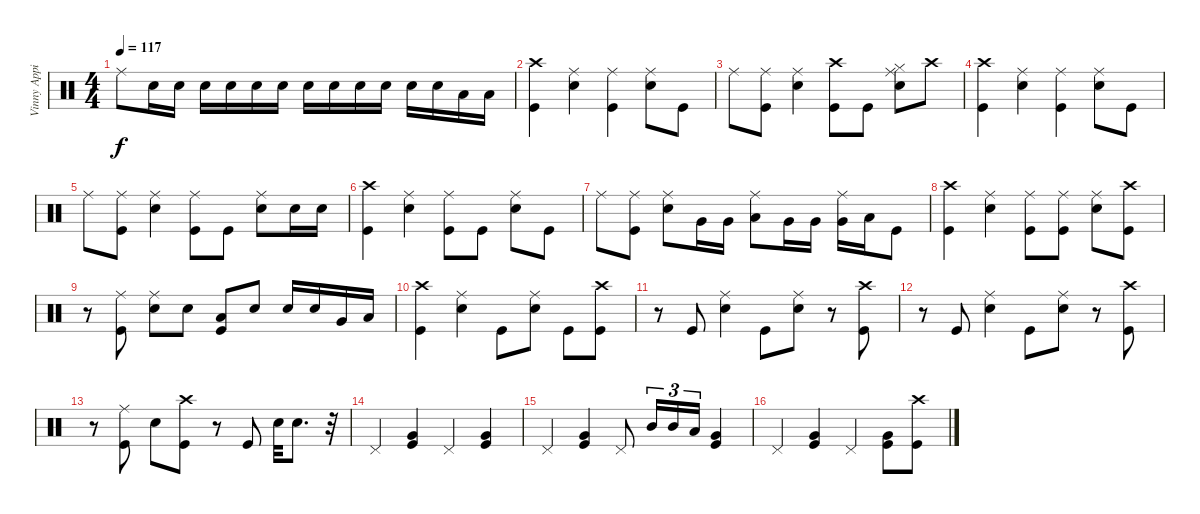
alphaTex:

\track ("Vinny Appice" "Vinny Appi") {instrument percussion}
\staff {score}
\articulation defaults
\ts (4 4)
\tempo 117
\clef neutral
\ks c "Ride (middle)".8{dy f} "Snare (hit) 2".16 "Snare (hit) 2".16 "Snare (hit) 2".16 "Snare (hit) 2".16 "Snare (hit) 2".16 "Snare (hit) 2".16 "Snare (hit) 2".16 "Snare (hit) 2".16 "Snare (hit) 2".16 "Snare (hit) 2".16 "Snare (hit) 2".16 "Snare (hit) 2".16 "Low Tom (hit)".16 "Low Tom (hit)".16
|
("Kick (hit)" "Crash high (hit)").4 ("Ride (middle)" "Snare (hit) 2").4 ("Ride (middle)" "Kick (hit)").4 ("Ride (middle)" "Snare (hit) 2").8 "Kick (hit)".8 |
"Ride (middle)".8 ("Ride (middle)" "Kick (hit)").8 ("Ride (middle)" "Snare (hit) 2").4 ("Kick (hit)" "Crash high (hit)").8 "Kick (hit)".8 ("Snare (hit) 2" "Hi-Hat (closed)" "Ride (middle)").8 "Crash high (hit)".8 |
("Kick (hit)" "Crash high (hit)").4 ("Ride (middle)" "Snare (hit) 2").4 ("Ride (middle)" "Kick (hit)").4 ("Ride (middle)" "Snare (hit) 2").8 "Kick (hit)".8 |
"Ride (middle)".8 ("Ride (middle)" "Kick (hit)").8 ("Ride (middle)" "Snare (hit) 2").4 ("Ride (middle)" "Kick (hit)").8 "Kick (hit)".8 ("Ride (middle)" "Snare (hit) 2").8 "Snare (hit) 2".16 "Snare (hit) 2".16 |
("Kick (hit)" "Crash high (hit)").4 ("Ride (middle)" "Snare (hit) 2").4 ("Kick (hit)" "Ride (middle)").8 "Kick (hit)".8 ("Ride (middle)" "Snare (hit) 2").8 "Kick (hit)".8 |
"Ride (middle)".8 ("Ride (middle)" "Kick (hit)").8 ("Ride (middle)" "Snare (hit) 2").8 "Very Low Tom (hit)".16 "Very Low Tom (hit)".16 ("Low Tom (hit)" "Ride (middle)").8 "Very Low Tom (hit)".16 "Very Low Tom (hit)".16 ("Very Low Tom (hit)" "Ride (middle)").16 "Low Floor Tom (hit)".16 "Kick (hit)".8 |
("Kick (hit)" "Crash high (hit)").4 ("Ride (middle)" "Snare (hit) 2").4 ("Ride (middle)" "Kick (hit)").8 ("Ride (middle)" "Kick (hit)").8 ("Ride (middle)" "Snare (hit) 2").8 ("Kick (hit)" "Crash high (hit)").8 |
r.8 ("Ride (middle)" "Kick (hit)").8 ("Ride (middle)" "Snare (hit) 2").8 "Snare (hit) 2".8 ("Low Floor Tom (hit)" "Kick (hit)").8 "Snare (hit) 2".8 "Snare (hit) 2".16 "Snare (hit) 2".16 "Very Low Tom (hit)".16 "Low Floor Tom (hit)".16 |
("Kick (hit)" "Crash high (hit)").4 ("Ride (middle)" "Snare (hit) 2").4 "Kick (hit)".8 ("Ride (middle)" "Snare (hit) 2").8 "Kick (hit)".8 ("Kick (hit)" "Crash high (hit)").8 |
r.8 "Kick (hit)".8 ("Ride (middle)" "Snare (hit) 2").4 "Kick (hit)".8 ("Ride (middle)" "Snare (hit) 2").8 r.8 ("Crash high (hit)" "Kick (hit)").8 |
r.8 "Kick (hit)".8 ("Ride (middle)" "Snare (hit) 2").4 "Kick (hit)".8 ("Ride (middle)" "Snare (hit) 2").8 r.8 ("Kick (hit)" "Crash high (hit)").8 |
r.8 ("Ride (middle)" "Kick (hit)").8 "Snare (hit) 2".8 ("Crash high (hit)" "Kick (hit)").8 r.8 "Kick (hit)".8 "Snare (hit) 2".32 "Snare (hit) 2".8{d} r.32 |
"Pedal Hi-Hat (hit)".4 ("Kick (hit)" "Very Low Tom (hit)").4 "Pedal Hi-Hat (hit)".4 ("Kick (hit)" "Very Low Tom (hit)").4 |
"Pedal Hi-Hat (hit)".4 ("Very Low Tom (hit)" "Kick (hit)").4 "Pedal Hi-Hat (hit)".8 "Mid Tom (hit)".16{tu (3 2)} "Mid Tom (hit)".16{tu (3 2)} "Low Tom (hit)".16{tu (3 2)} ("Kick (hit)" "Very Low Tom (hit)").4 |
"Pedal Hi-Hat (hit)".4 ("Kick (hit)" "Very Low Tom (hit)").4 "Pedal Hi-Hat (hit)".4 ("Kick (hit)" "Very Low Tom (hit)").8 ("Kick (hit)" "Crash high (hit)").8
